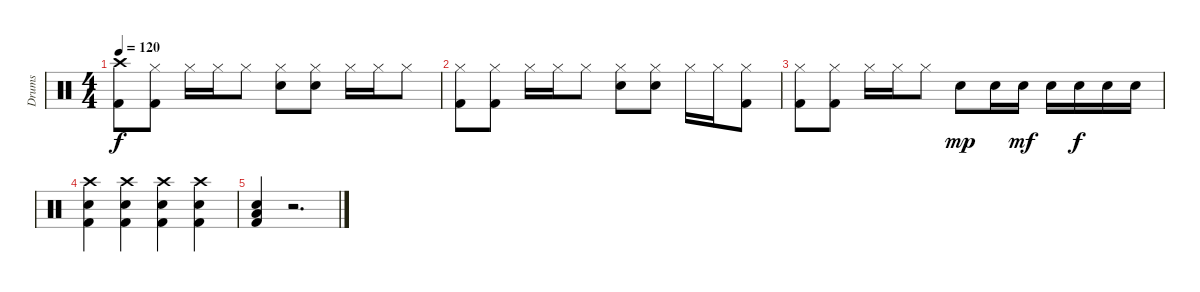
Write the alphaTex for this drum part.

\track ("Drums" "Drums") {instrument percussion}
\staff {score}
\articulation defaults
\ts (4 4)
\tempo 120
\clef neutral
\ks c
("Crash high (hit)" "Kick (hit) 2").8{dy f} ("Hi-Hat (closed)" "Kick (hit) 2").8 "Hi-Hat (closed)".16 "Hi-Hat (closed)".16 "Hi-Hat (closed)".8 ("Hi-Hat (closed)" "Snare (hit) 2").8 ("Hi-Hat (closed)" "Snare (hit) 2").8 "Hi-Hat (closed)".16 "Hi-Hat (closed)".16 "Hi-Hat (closed)".8 |
("Hi-Hat (closed)" "Kick (hit) 2").8 ("Hi-Hat (closed)" "Kick (hit) 2").8 "Hi-Hat (closed)".16 "Hi-Hat (closed)".16 "Hi-Hat (closed)".8 ("Hi-Hat (closed)" "Snare (hit) 2").8 ("Hi-Hat (closed)" "Snare (hit) 2").8 "Hi-Hat (closed)".16 "Hi-Hat (closed)".16 ("Hi-Hat (closed)" "Kick (hit) 2").8 |
("Hi-Hat (closed)" "Kick (hit) 2").8 ("Hi-Hat (closed)" "Kick (hit) 2").8 "Hi-Hat (closed)".16 "Hi-Hat (closed)".16 "Hi-Hat (closed)".8 "Snare (hit) 2".8{dy mp} "Snare (hit) 2".16 "Snare (hit) 2".16{dy mf} "Snare (hit) 2".16 "Snare (hit) 2".16{dy f} "Snare (hit) 2".16 "Snare (hit) 2".16 |
("Crash high (hit)" "Snare (hit) 2" "Kick (hit) 2").4 ("Crash high (hit)" "Snare (hit) 2" "Kick (hit) 2").4 ("Crash high (hit)" "Snare (hit) 2" "Kick (hit) 2").4 ("Crash high (hit)" "Snare (hit) 2" "Kick (hit) 2").4 |
("Low Floor Tom (hit)" "Snare (hit) 2" "Kick (hit) 2").4 r.2{d}
